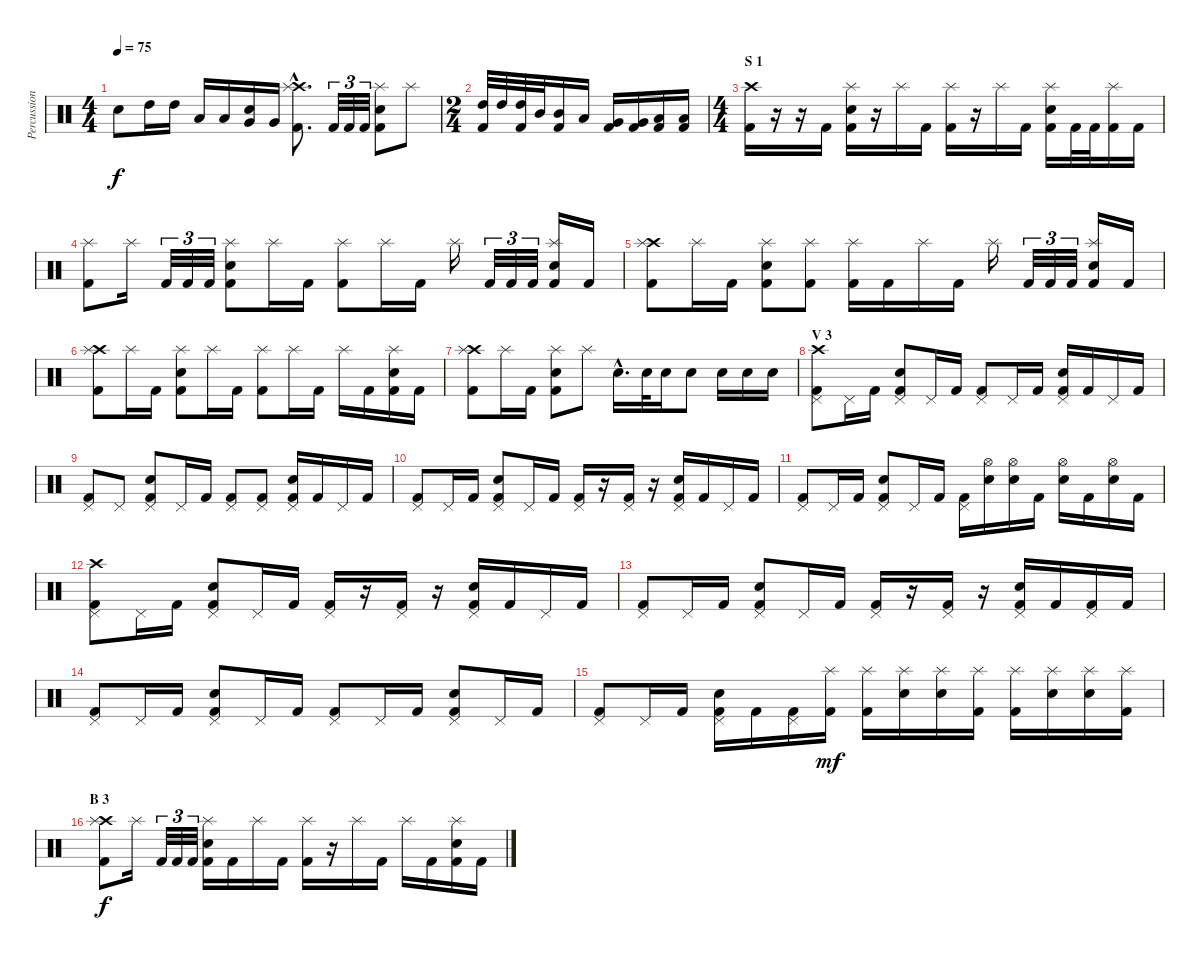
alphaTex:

\track ("Percussion" "Percussion") {instrument percussion}
\staff {score}
\articulation defaults
\ts (4 4)
\tempo 75
\clef neutral
\ks c "Snare (hit) 2".8{dy f} "High Tom (hit)".16 "High Tom (hit)".16 "Low Tom (hit)".16 "Low Tom (hit)".16
("Snare (hit) 2" "Very Low Tom (hit)").16 "Very Low Tom (hit)".16 ("Crash high (hit)"{hac} "Splash (hit)"{hac} "Kick (hit) 2"{hac}).8{d} "Kick (hit) 2".32{tu (3 2)} "Kick (hit) 2".32{tu (3 2)} "Kick (hit) 2".32{tu (3 2)} ("Splash (hit)" "Snare (hit) 2" "Kick (hit) 2").8 "Splash (hit)".8 |
\ts (2 4)
("Kick (hit) 2" "High Tom (hit)").32 "High Tom (hit)".32 ("Kick (hit) 2" "High Tom (hit)").32 "Mid Tom (hit)".32 ("Kick (hit) 2" "Mid Tom (hit)").16 "Low Tom (hit)".16 ("Very Low Tom (hit)" "Kick (hit) 2").16 ("Very Low Tom (hit)" "Kick (hit) 2").16 ("Low Floor Tom (hit)" "Kick (hit) 2").16 ("Low Floor Tom (hit)" "Kick (hit) 2").16 |
\ts (4 4)
\section ("" "S 1")
("Crash high (hit)" "Kick (hit) 2").16 r.16 r.16 "Kick (hit) 2".16 ("Splash (hit)" "Snare (hit) 2" "Kick (hit) 2").16 r.16 "Splash (hit)".16 "Kick (hit) 2".16 ("Splash (hit)" "Kick (hit) 2").16 r.16 "Splash (hit)".16 "Kick (hit) 2".16 ("Splash (hit)" "Snare (hit) 2" "Kick (hit) 2").16 "Kick (hit) 2".32 "Kick (hit) 2".32 ("Splash (hit)" "Kick (hit) 2").16 "Kick (hit) 2".16 |
("Splash (hit)" "Kick (hit) 2").8 "Splash (hit)".16 "Kick (hit) 2".32{tu (3 2)} "Kick (hit) 2".32{tu (3 2)} "Kick (hit) 2".32{tu (3 2)} ("Splash (hit)" "Snare (hit) 2" "Kick (hit) 2").8 "Splash (hit)".16 "Kick (hit) 2".16 ("Splash (hit)" "Kick (hit) 2").8 "Splash (hit)".16 "Kick (hit) 2".16 "Splash (hit)".16 "Kick (hit) 2".32{tu (3 2)} "Kick (hit) 2".32{tu (3 2)} "Kick (hit) 2".32{tu (3 2)} ("Splash (hit)" "Snare (hit) 2" "Kick (hit) 2").16 "Kick (hit) 2".16 |
("Crash high (hit)" "Splash (hit)" "Kick (hit) 2").8 "Splash (hit)".16 "Kick (hit) 2".16 ("Splash (hit)" "Snare (hit) 2" "Kick (hit) 2").8 ("Splash (hit)" "Kick (hit) 2").8 ("Splash (hit)" "Kick (hit) 2").16 "Kick (hit) 2".16 "Splash (hit)".16 "Kick (hit) 2".16 "Splash (hit)".16 "Kick (hit) 2".32{tu (3 2)} "Kick (hit) 2".32{tu (3 2)} "Kick (hit) 2".32{tu (3 2)} ("Splash (hit)" "Snare (hit) 2" "Kick (hit) 2").16 "Kick (hit) 2".16 |
("Crash high (hit)" "Splash (hit)" "Kick (hit) 2").8 "Splash (hit)".16 "Kick (hit) 2".16 ("Splash (hit)" "Snare (hit) 2" "Kick (hit) 2").8 "Splash (hit)".16 "Kick (hit) 2".16 ("Splash (hit)" "Kick (hit) 2").8 "Splash (hit)".16 "Kick (hit) 2".16 "Splash (hit)".16 "Kick (hit) 2".16 ("Splash (hit)" "Snare (hit) 2" "Kick (hit) 2").16 "Kick (hit) 2".16 |
("Crash high (hit)" "Splash (hit)" "Kick (hit) 2").8 "Splash (hit)".16 "Kick (hit) 2".16 ("Splash (hit)" "Snare (hit) 2" "Kick (hit) 2").8 "Splash (hit)".8 "Snare (hit) 2"{hac}.16{d} "Snare (hit) 2".32 "Snare (hit) 2".16 "Snare (hit) 2".8 "Snare (hit) 2".16 "Snare (hit) 2".16 "Snare (hit) 2".16 |
\section ("" "V 3")
("Crash high (hit)" "Pedal Hi-Hat (hit)" "Kick (hit) 2").8 "Pedal Hi-Hat (hit)".16 "Kick (hit) 2".16 ("Pedal Hi-Hat (hit)" "Snare (hit) 2" "Kick (hit) 2").8 "Pedal Hi-Hat (hit)".16 "Kick (hit) 2".16 ("Pedal Hi-Hat (hit)" "Kick (hit) 2").8 "Pedal Hi-Hat (hit)".16 "Kick (hit) 2".16 ("Pedal Hi-Hat (hit)" "Snare (hit) 2" "Kick (hit) 2").16 "Kick (hit) 2".16 "Pedal Hi-Hat (hit)".16 "Kick (hit) 2".16 |
("Pedal Hi-Hat (hit)" "Kick (hit) 2").8 "Pedal Hi-Hat (hit)".8 ("Pedal Hi-Hat (hit)" "Snare (hit) 2" "Kick (hit) 2").8 "Pedal Hi-Hat (hit)".16 "Kick (hit) 2".16 ("Pedal Hi-Hat (hit)" "Kick (hit) 2").8 ("Pedal Hi-Hat (hit)" "Kick (hit) 2").8 ("Pedal Hi-Hat (hit)" "Snare (hit) 2" "Kick (hit) 2").16 "Kick (hit) 2".16 "Pedal Hi-Hat (hit)".16 "Kick (hit) 2".16 |
("Pedal Hi-Hat (hit)" "Kick (hit) 2").8 "Pedal Hi-Hat (hit)".16 "Kick (hit) 2".16 ("Pedal Hi-Hat (hit)" "Snare (hit) 2" "Kick (hit) 2").8 "Pedal Hi-Hat (hit)".16 "Kick (hit) 2".16 ("Pedal Hi-Hat (hit)" "Kick (hit) 2").16 r.16 ("Pedal Hi-Hat (hit)" "Kick (hit) 2").16 r.16 ("Pedal Hi-Hat (hit)" "Snare (hit) 2" "Kick (hit) 2").16 "Kick (hit) 2".16 "Pedal Hi-Hat (hit)".16 "Kick (hit) 2".16 |
("Pedal Hi-Hat (hit)" "Kick (hit) 2").8 "Pedal Hi-Hat (hit)".16 "Kick (hit) 2".16 ("Pedal Hi-Hat (hit)" "Snare (hit) 2" "Kick (hit) 2").8 "Pedal Hi-Hat (hit)".16 "Kick (hit) 2".16 ("Pedal Hi-Hat (hit)" "Kick (hit) 2").16 ("Hi-Hat (open)" "Snare (hit) 2").16 ("Hi-Hat (open)" "Snare (hit) 2").16 "Kick (hit) 2".16 ("Hi-Hat (open)" "Snare (hit) 2").16 "Kick (hit) 2".16 ("Hi-Hat (open)" "Snare (hit) 2").16 "Kick (hit) 2".16 |
("Crash high (hit)" "Pedal Hi-Hat (hit)" "Kick (hit) 2").8 "Pedal Hi-Hat (hit)".16 "Kick (hit) 2".16 ("Pedal Hi-Hat (hit)" "Snare (hit) 2" "Kick (hit) 2").8 "Pedal Hi-Hat (hit)".16 "Kick (hit) 2".16 ("Pedal Hi-Hat (hit)" "Kick (hit) 2").16 r.16 ("Pedal Hi-Hat (hit)" "Kick (hit) 2").16 r.16 ("Pedal Hi-Hat (hit)" "Snare (hit) 2" "Kick (hit) 2").16 "Kick (hit) 2".16 "Pedal Hi-Hat (hit)".16 "Kick (hit) 2".16 |
("Pedal Hi-Hat (hit)" "Kick (hit) 2").8 "Pedal Hi-Hat (hit)".16 "Kick (hit) 2".16 ("Pedal Hi-Hat (hit)" "Snare (hit) 2" "Kick (hit) 2").8 "Pedal Hi-Hat (hit)".16 "Kick (hit) 2".16 ("Pedal Hi-Hat (hit)" "Kick (hit) 2").16 r.16 ("Pedal Hi-Hat (hit)" "Kick (hit) 2").16 r.16 ("Pedal Hi-Hat (hit)" "Snare (hit) 2" "Kick (hit) 2").16 "Kick (hit) 2".16 ("Pedal Hi-Hat (hit)" "Kick (hit) 2").16 "Kick (hit) 2".16 |
("Pedal Hi-Hat (hit)" "Kick (hit) 2").8 "Pedal Hi-Hat (hit)".16 "Kick (hit) 2".16 ("Pedal Hi-Hat (hit)" "Snare (hit) 2" "Kick (hit) 2").8 "Pedal Hi-Hat (hit)".16 "Kick (hit) 2".16 ("Pedal Hi-Hat (hit)" "Kick (hit) 2").8 "Pedal Hi-Hat (hit)".16 "Kick (hit) 2".16 ("Pedal Hi-Hat (hit)" "Snare (hit) 2" "Kick (hit) 2").8 "Pedal Hi-Hat (hit)".16 "Kick (hit) 2".16 |
("Pedal Hi-Hat (hit)" "Kick (hit) 2").8 "Pedal Hi-Hat (hit)".16 "Kick (hit) 2".16 ("Pedal Hi-Hat (hit)" "Snare (hit) 2" "Kick (hit) 2").16 "Kick (hit) 2".16 ("Pedal Hi-Hat (hit)" "Kick (hit) 2").16 ("Splash (hit)" "Kick (hit) 2").16{dy mf} ("Splash (hit)" "Kick (hit) 2").16 ("Splash (hit)" "Snare (hit) 2").16 ("Splash (hit)" "Snare (hit) 2").16 ("Splash (hit)" "Kick (hit) 2").16 ("Splash (hit)" "Kick (hit) 2").16 ("Splash (hit)" "Snare (hit) 2").16 ("Splash (hit)" "Snare (hit) 2").16 ("Splash (hit)" "Kick (hit) 2").16 |
\section ("" "B 3")
("Crash high (hit)" "Splash (hit)" "Kick (hit) 2").8{dy f} "Splash (hit)".16 "Kick (hit) 2".32{tu (3 2)} "Kick (hit) 2".32{tu (3 2)} "Kick (hit) 2".32{tu (3 2)} ("Splash (hit)" "Snare (hit) 2" "Kick (hit) 2").16 "Kick (hit) 2".16 "Splash (hit)".16 "Kick (hit) 2".16 ("Splash (hit)" "Kick (hit) 2").16 r.16 "Splash (hit)".16 "Kick (hit) 2".16 "Splash (hit)".16 "Kick (hit) 2".16 ("Splash (hit)" "Snare (hit) 2" "Kick (hit) 2").16 "Kick (hit) 2".16
